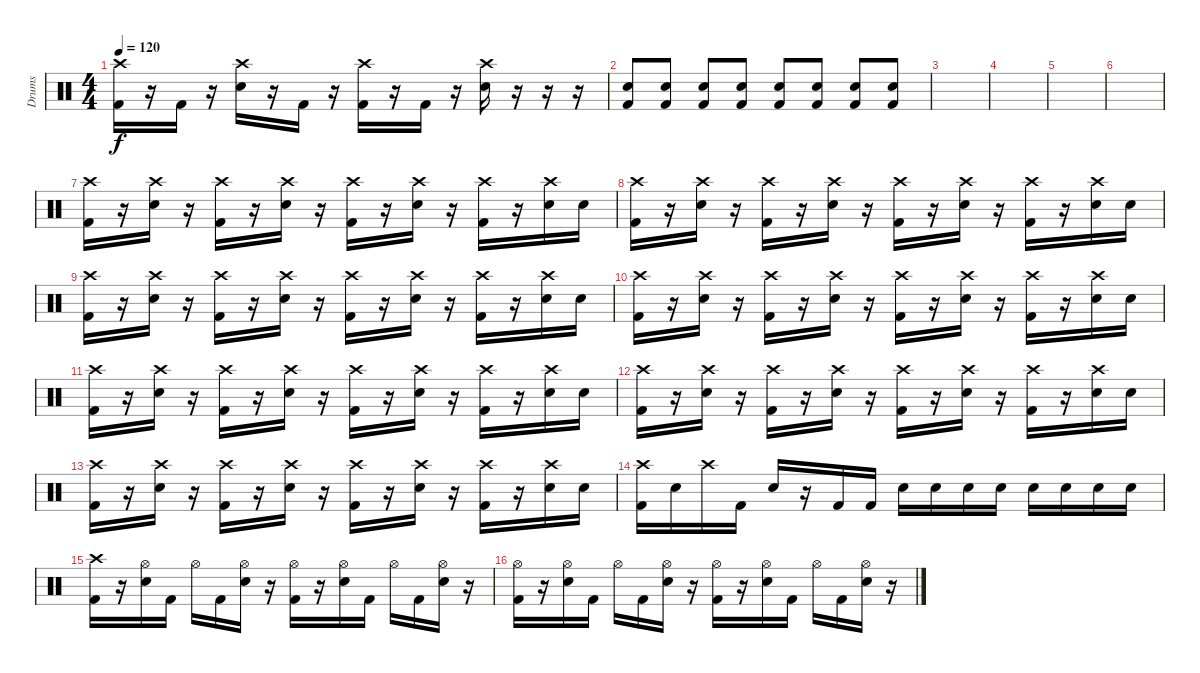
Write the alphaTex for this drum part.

\track ("Drums" "Drums") {instrument percussion}
\staff {score}
\articulation defaults
\ts (4 4)
\tempo 120
\clef neutral
\ks c
("Crash high (hit)" "Kick (hit) 2").16{dy f} r.16 "Kick (hit) 2".16 r.16 ("Crash high (hit)" "Electric Snare (hit)").16 r.16 "Kick (hit) 2".16 r.16 ("Crash high (hit)" "Kick (hit) 2").16 r.16 "Kick (hit) 2".16 r.16 ("Crash high (hit)" "Electric Snare (hit)").16 r.16 r.16 r.16 |
("Electric Snare (hit)" "Kick (hit) 2").8 ("Electric Snare (hit)" "Kick (hit) 2").8 ("Electric Snare (hit)" "Kick (hit) 2").8 ("Electric Snare (hit)" "Kick (hit) 2").8 ("Electric Snare (hit)" "Kick (hit) 2").8 ("Electric Snare (hit)" "Kick (hit) 2").8 ("Electric Snare (hit)" "Kick (hit) 2").8 ("Electric Snare (hit)" "Kick (hit) 2").8 |
|
|
|
|
("Crash high (hit)" "Kick (hit) 2").16 r.16 ("Crash high (hit)" "Electric Snare (hit)").16 r.16 ("Crash high (hit)" "Kick (hit) 2").16 r.16 ("Crash high (hit)" "Electric Snare (hit)").16 r.16 ("Crash high (hit)" "Kick (hit) 2").16 r.16 ("Crash high (hit)" "Electric Snare (hit)").16 r.16 ("Crash high (hit)" "Kick (hit) 2").16 r.16 ("Crash high (hit)" "Electric Snare (hit)").16 "Electric Snare (hit)".16 |
("Crash high (hit)" "Kick (hit) 2").16 r.16 ("Crash high (hit)" "Electric Snare (hit)").16 r.16 ("Crash high (hit)" "Kick (hit) 2").16 r.16 ("Crash high (hit)" "Electric Snare (hit)").16 r.16 ("Crash high (hit)" "Kick (hit) 2").16 r.16 ("Crash high (hit)" "Electric Snare (hit)").16 r.16 ("Crash high (hit)" "Kick (hit) 2").16 r.16 ("Crash high (hit)" "Electric Snare (hit)").16 "Electric Snare (hit)".16 |
("Crash high (hit)" "Kick (hit) 2").16 r.16 ("Crash high (hit)" "Electric Snare (hit)").16 r.16 ("Crash high (hit)" "Kick (hit) 2").16 r.16 ("Crash high (hit)" "Electric Snare (hit)").16 r.16 ("Crash high (hit)" "Kick (hit) 2").16 r.16 ("Crash high (hit)" "Electric Snare (hit)").16 r.16 ("Crash high (hit)" "Kick (hit) 2").16 r.16 ("Crash high (hit)" "Electric Snare (hit)").16 "Electric Snare (hit)".16 |
("Crash high (hit)" "Kick (hit) 2").16 r.16 ("Crash high (hit)" "Electric Snare (hit)").16 r.16 ("Crash high (hit)" "Kick (hit) 2").16 r.16 ("Crash high (hit)" "Electric Snare (hit)").16 r.16 ("Crash high (hit)" "Kick (hit) 2").16 r.16 ("Crash high (hit)" "Electric Snare (hit)").16 r.16 ("Crash high (hit)" "Kick (hit) 2").16 r.16 ("Crash high (hit)" "Electric Snare (hit)").16 "Electric Snare (hit)".16 |
("Crash high (hit)" "Kick (hit) 2").16 r.16 ("Crash high (hit)" "Electric Snare (hit)").16 r.16 ("Crash high (hit)" "Kick (hit) 2").16 r.16 ("Crash high (hit)" "Electric Snare (hit)").16 r.16 ("Crash high (hit)" "Kick (hit) 2").16 r.16 ("Crash high (hit)" "Electric Snare (hit)").16 r.16 ("Crash high (hit)" "Kick (hit) 2").16 r.16 ("Crash high (hit)" "Electric Snare (hit)").16 "Electric Snare (hit)".16 |
("Crash high (hit)" "Kick (hit) 2").16 r.16 ("Crash high (hit)" "Electric Snare (hit)").16 r.16 ("Crash high (hit)" "Kick (hit) 2").16 r.16 ("Crash high (hit)" "Electric Snare (hit)").16 r.16 ("Crash high (hit)" "Kick (hit) 2").16 r.16 ("Crash high (hit)" "Electric Snare (hit)").16 r.16 ("Crash high (hit)" "Kick (hit) 2").16 r.16 ("Crash high (hit)" "Electric Snare (hit)").16 "Electric Snare (hit)".16 |
("Crash high (hit)" "Kick (hit) 2").16 r.16 ("Crash high (hit)" "Electric Snare (hit)").16 r.16 ("Crash high (hit)" "Kick (hit) 2").16 r.16 ("Crash high (hit)" "Electric Snare (hit)").16 r.16 ("Crash high (hit)" "Kick (hit) 2").16 r.16 ("Crash high (hit)" "Electric Snare (hit)").16 r.16 ("Crash high (hit)" "Kick (hit) 2").16 r.16 ("Crash high (hit)" "Electric Snare (hit)").16 "Electric Snare (hit)".16 |
("Crash high (hit)" "Kick (hit) 2").16 "Electric Snare (hit)".16 "Crash high (hit)".16 "Kick (hit) 2".16 "Electric Snare (hit)".16 r.16 "Kick (hit) 2".16 "Kick (hit) 2".16 "Electric Snare (hit)".16 "Electric Snare (hit)".16 "Electric Snare (hit)".16 "Electric Snare (hit)".16 "Electric Snare (hit)".16 "Electric Snare (hit)".16 "Electric Snare (hit)".16 "Electric Snare (hit)".16 |
("Crash high (hit)" "Kick (hit) 2").16 r.16 ("Hi-Hat (open)" "Electric Snare (hit)").16 "Kick (hit) 2".16 "Hi-Hat (open)".16 "Kick (hit) 2".16 ("Hi-Hat (open)" "Electric Snare (hit)").16 r.16 ("Hi-Hat (open)" "Kick (hit) 2").16 r.16 ("Hi-Hat (open)" "Electric Snare (hit)").16 "Kick (hit) 2".16 "Hi-Hat (open)".16 "Kick (hit) 2".16 ("Hi-Hat (open)" "Electric Snare (hit)").16 r.16 |
("Hi-Hat (open)" "Kick (hit) 2").16 r.16 ("Hi-Hat (open)" "Electric Snare (hit)").16 "Kick (hit) 2".16 "Hi-Hat (open)".16 "Kick (hit) 2".16 ("Hi-Hat (open)" "Electric Snare (hit)").16 r.16 ("Hi-Hat (open)" "Kick (hit) 2").16 r.16 ("Hi-Hat (open)" "Electric Snare (hit)").16 "Kick (hit) 2".16 "Hi-Hat (open)".16 "Kick (hit) 2".16 ("Hi-Hat (open)" "Electric Snare (hit)").16 r.16
